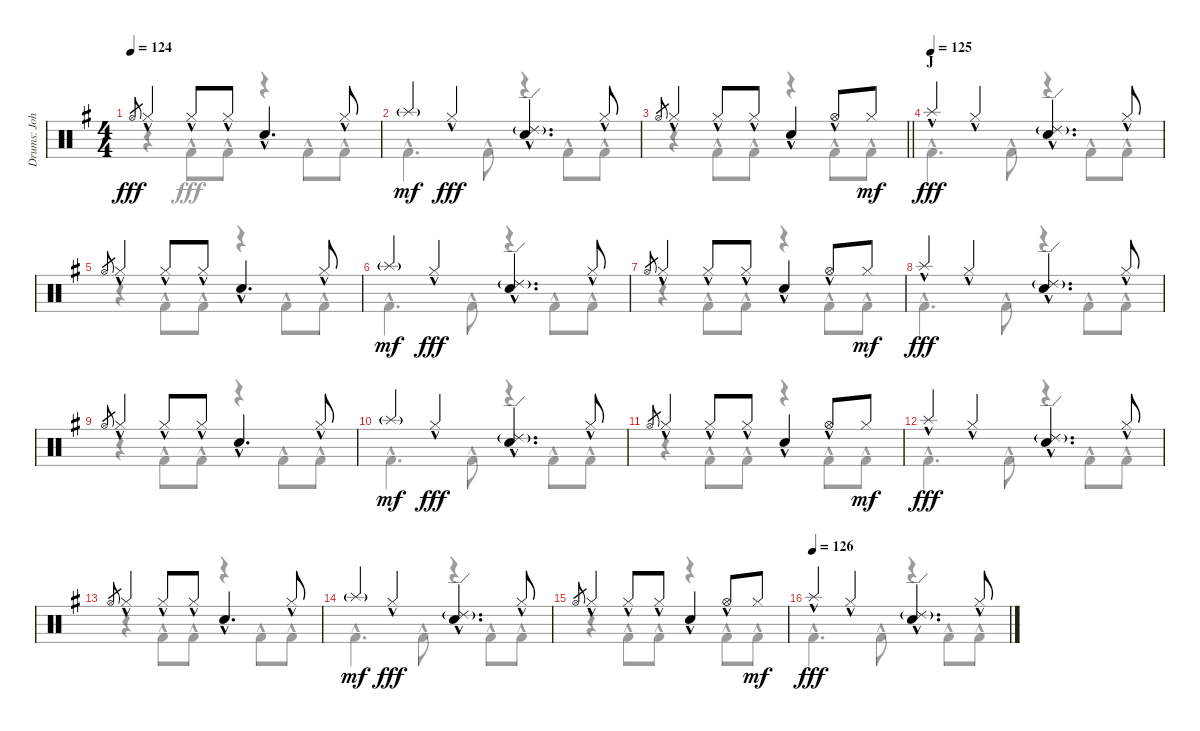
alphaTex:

\track ("Drums: John" "Drums: Joh") {instrument percussion}
\staff {score}
\articulation defaults
\voice
\ts (4 4)
\tempo 124
\clef neutral
\ks g "Hi-Hat (open)".8{gr dy fff} "Hi-Hat (closed)"{hac}.4 "Hi-Hat (closed)"{hac}.8 "Hi-Hat (closed)"{hac}.8 "Electric Snare (hit)"{hac}.4{d} "Hi-Hat (closed)"{hac}.8
|
"Splash (hit)"{g}.4{dy mf} "Hi-Hat (closed)"{hac}.4{dy fff} ("Ride (edge) 2"{g} "Electric Snare (hit)"{hac}).4{d} "Hi-Hat (closed)"{hac}.8 |
\barLineRight lightlight "Hi-Hat (open)".8{gr} "Hi-Hat (closed)"{hac}.4 "Hi-Hat (closed)"{hac}.8 "Hi-Hat (closed)"{hac}.8 "Electric Snare (hit)"{hac}.4 "Hi-Hat (open)"{hac}.8 "Hi-Hat (closed)".8{dy mf}
|
\section ("" "J")
\tempo (125)
"Splash (hit)"{hac}.4{dy fff} "Hi-Hat (closed)"{hac}.4 ("Ride (edge) 2"{g} "Electric Snare (hit)"{hac}).4{d} "Hi-Hat (closed)"{hac}.8 |
"Hi-Hat (open)".8{gr} "Hi-Hat (closed)"{hac}.4 "Hi-Hat (closed)"{hac}.8 "Hi-Hat (closed)"{hac}.8 "Electric Snare (hit)"{hac}.4{d} "Hi-Hat (closed)"{hac}.8 |
"Splash (hit)"{g}.4{dy mf} "Hi-Hat (closed)"{hac}.4{dy fff} ("Ride (edge) 2"{g} "Electric Snare (hit)"{hac}).4{d} "Hi-Hat (closed)"{hac}.8 |
"Hi-Hat (open)".8{gr} "Hi-Hat (closed)"{hac}.4 "Hi-Hat (closed)"{hac}.8 "Hi-Hat (closed)"{hac}.8 "Electric Snare (hit)"{hac}.4 "Hi-Hat (open)"{hac}.8 "Hi-Hat (closed)".8{dy mf} |
"Splash (hit)"{hac}.4{dy fff} "Hi-Hat (closed)"{hac}.4 ("Ride (edge) 2"{g} "Electric Snare (hit)"{hac}).4{d} "Hi-Hat (closed)"{hac}.8 |
"Hi-Hat (open)".8{gr} "Hi-Hat (closed)"{hac}.4 "Hi-Hat (closed)"{hac}.8 "Hi-Hat (closed)"{hac}.8 "Electric Snare (hit)"{hac}.4{d} "Hi-Hat (closed)"{hac}.8 |
"Splash (hit)"{g}.4{dy mf} "Hi-Hat (closed)"{hac}.4{dy fff} ("Ride (edge) 2"{g} "Electric Snare (hit)"{hac}).4{d} "Hi-Hat (closed)"{hac}.8 |
"Hi-Hat (open)".8{gr} "Hi-Hat (closed)"{hac}.4 "Hi-Hat (closed)"{hac}.8 "Hi-Hat (closed)"{hac}.8 "Electric Snare (hit)"{hac}.4 "Hi-Hat (open)"{hac}.8 "Hi-Hat (closed)".8{dy mf} |
"Splash (hit)"{hac}.4{dy fff} "Hi-Hat (closed)"{hac}.4 ("Ride (edge) 2"{g} "Electric Snare (hit)"{hac}).4{d} "Hi-Hat (closed)"{hac}.8 |
"Hi-Hat (open)".8{gr} "Hi-Hat (closed)"{hac}.4 "Hi-Hat (closed)"{hac}.8 "Hi-Hat (closed)"{hac}.8 "Electric Snare (hit)"{hac}.4{d} "Hi-Hat (closed)"{hac}.8 |
"Splash (hit)"{g}.4{dy mf} "Hi-Hat (closed)"{hac}.4{dy fff} ("Ride (edge) 2"{g} "Electric Snare (hit)"{hac}).4{d} "Hi-Hat (closed)"{hac}.8 |
"Hi-Hat (open)".8{gr} "Hi-Hat (closed)"{hac}.4 "Hi-Hat (closed)"{hac}.8 "Hi-Hat (closed)"{hac}.8 "Electric Snare (hit)"{hac}.4 "Hi-Hat (open)"{hac}.8 "Hi-Hat (closed)".8{dy mf} |
\tempo (126)
"Splash (hit)"{hac}.4{dy fff} "Hi-Hat (closed)"{hac}.4 ("Ride (edge) 2"{g} "Electric Snare (hit)"{hac}).4{d} "Hi-Hat (closed)"{hac}.8
\voice
\clef neutral
\ottava regular
\simile none
\ks g
r.4{dy fff} "Kick (hit) 2"{hac}.8 "Kick (hit) 2"{hac}.8 r.4 "Kick (hit) 2"{hac}.8 "Kick (hit) 2"{hac}.8 |
"Kick (hit) 2"{hac}.4{d} "Kick (hit) 2"{hac}.8 r.4 "Kick (hit) 2"{hac}.8 "Kick (hit) 2"{hac}.8 |
\barLineRight lightlight
r.4 "Kick (hit) 2"{hac}.8 "Kick (hit) 2"{hac}.8 r.4 "Kick (hit) 2"{hac}.8 "Kick (hit) 2"{hac}.8 |
"Kick (hit) 2"{hac}.4{d} "Kick (hit) 2"{hac}.8 r.4 "Kick (hit) 2"{hac}.8 "Kick (hit) 2"{hac}.8 |
r.4 "Kick (hit) 2"{hac}.8 "Kick (hit) 2"{hac}.8 r.4 "Kick (hit) 2"{hac}.8 "Kick (hit) 2"{hac}.8 |
"Kick (hit) 2"{hac}.4{d} "Kick (hit) 2"{hac}.8 r.4 "Kick (hit) 2"{hac}.8 "Kick (hit) 2"{hac}.8 |
r.4 "Kick (hit) 2"{hac}.8 "Kick (hit) 2"{hac}.8 r.4 "Kick (hit) 2"{hac}.8 "Kick (hit) 2"{hac}.8 |
"Kick (hit) 2"{hac}.4{d} "Kick (hit) 2"{hac}.8 r.4 "Kick (hit) 2"{hac}.8 "Kick (hit) 2"{hac}.8 |
r.4 "Kick (hit) 2"{hac}.8 "Kick (hit) 2"{hac}.8 r.4 "Kick (hit) 2"{hac}.8 "Kick (hit) 2"{hac}.8 |
"Kick (hit) 2"{hac}.4{d} "Kick (hit) 2"{hac}.8 r.4 "Kick (hit) 2"{hac}.8 "Kick (hit) 2"{hac}.8 |
r.4 "Kick (hit) 2"{hac}.8 "Kick (hit) 2"{hac}.8 r.4 "Kick (hit) 2"{hac}.8 "Kick (hit) 2"{hac}.8 |
"Kick (hit) 2"{hac}.4{d} "Kick (hit) 2"{hac}.8 r.4 "Kick (hit) 2"{hac}.8 "Kick (hit) 2"{hac}.8 |
r.4 "Kick (hit) 2"{hac}.8 "Kick (hit) 2"{hac}.8 r.4 "Kick (hit) 2"{hac}.8 "Kick (hit) 2"{hac}.8 |
"Kick (hit) 2"{hac}.4{d} "Kick (hit) 2"{hac}.8 r.4 "Kick (hit) 2"{hac}.8 "Kick (hit) 2"{hac}.8 |
r.4 "Kick (hit) 2"{hac}.8 "Kick (hit) 2"{hac}.8 r.4 "Kick (hit) 2"{hac}.8 "Kick (hit) 2"{hac}.8 |
"Kick (hit) 2"{hac}.4{d} "Kick (hit) 2"{hac}.8 r.4 "Kick (hit) 2"{hac}.8 "Kick (hit) 2"{hac}.8
